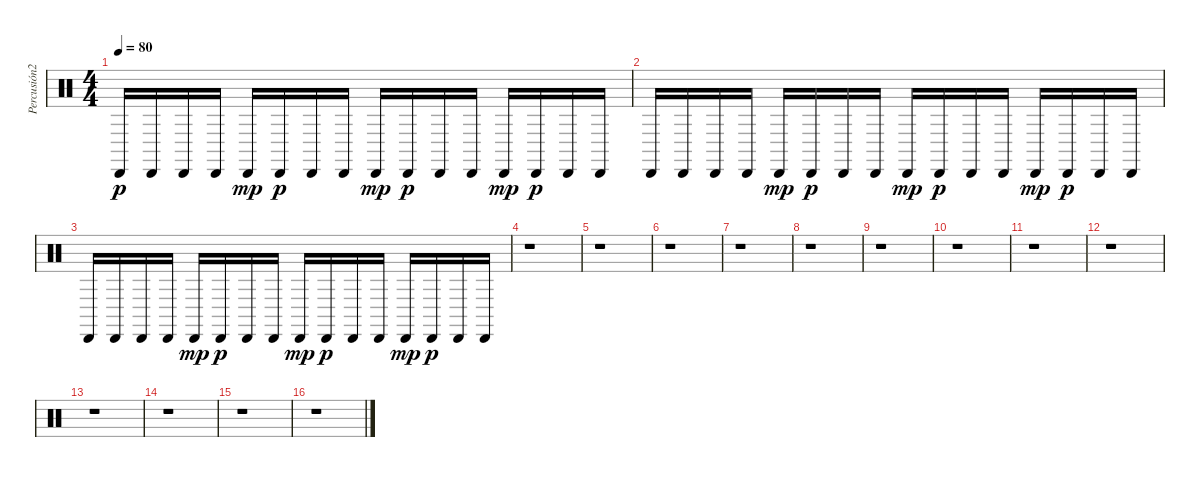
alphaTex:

\track ("Percusión2" "Percusión2") {instrument percussion}
\staff {score}
\articulation defaults
\ts (4 4)
\tempo 80
\clef neutral
\ks c "Cabasa (hit)".16{dy p} "Cabasa (hit)".16 "Cabasa (hit)".16 "Cabasa (hit)".16 "Cabasa (hit)".16{dy mp} "Cabasa (hit)".16{dy p} "Cabasa (hit)".16 "Cabasa (hit)".16 "Cabasa (hit)".16{dy mp} "Cabasa (hit)".16{dy p} "Cabasa (hit)".16 "Cabasa (hit)".16 "Cabasa (hit)".16{dy mp} "Cabasa (hit)".16{dy p} "Cabasa (hit)".16 "Cabasa (hit)".16
|
"Cabasa (hit)".16 "Cabasa (hit)".16 "Cabasa (hit)".16 "Cabasa (hit)".16 "Cabasa (hit)".16{dy mp} "Cabasa (hit)".16{dy p} "Cabasa (hit)".16 "Cabasa (hit)".16 "Cabasa (hit)".16{dy mp} "Cabasa (hit)".16{dy p} "Cabasa (hit)".16 "Cabasa (hit)".16 "Cabasa (hit)".16{dy mp} "Cabasa (hit)".16{dy p} "Cabasa (hit)".16 "Cabasa (hit)".16 |
"Cabasa (hit)".16 "Cabasa (hit)".16 "Cabasa (hit)".16 "Cabasa (hit)".16 "Cabasa (hit)".16{dy mp} "Cabasa (hit)".16{dy p} "Cabasa (hit)".16 "Cabasa (hit)".16 "Cabasa (hit)".16{dy mp} "Cabasa (hit)".16{dy p} "Cabasa (hit)".16 "Cabasa (hit)".16 "Cabasa (hit)".16{dy mp} "Cabasa (hit)".16{dy p} "Cabasa (hit)".16 "Cabasa (hit)".16 |
r.1 |
r.1 |
r.1 |
r.1 |
r.1 |
r.1 |
r.1 |
r.1 |
r.1 |
r.1 |
r.1 |
r.1 |
r.1
